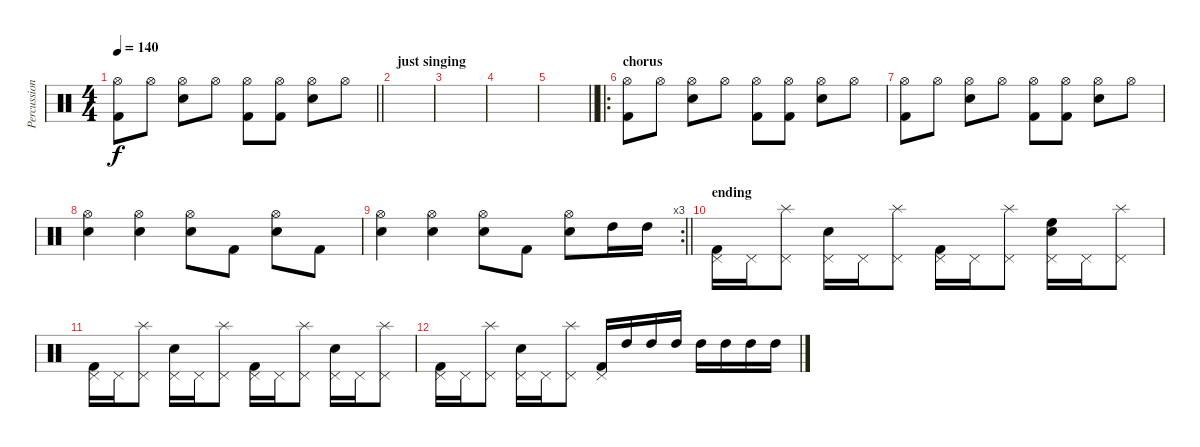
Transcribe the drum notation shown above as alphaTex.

\track ("Percussion" "Percussion") {instrument percussion}
\staff {score}
\articulation defaults
\ts (4 4)
\tempo 140
\clef neutral
\barLineRight lightlight
\ks c
("Kick (hit) 2" "Hi-Hat (open)").8{dy f} "Hi-Hat (open)".8 ("Snare (hit) 2" "Hi-Hat (open)").8 "Hi-Hat (open)".8 ("Kick (hit) 2" "Hi-Hat (open)").8 ("Kick (hit) 2" "Hi-Hat (open)").8 ("Snare (hit) 2" "Hi-Hat (open)").8 "Hi-Hat (open)".8 |
\section ("" "just singing")
|
|
|
\barLineRight lightlight
|
\ro
\section ("" "chorus")
("Kick (hit) 2" "Hi-Hat (open)").8 "Hi-Hat (open)".8 ("Snare (hit) 2" "Hi-Hat (open)").8 "Hi-Hat (open)".8 ("Kick (hit) 2" "Hi-Hat (open)").8 ("Kick (hit) 2" "Hi-Hat (open)").8 ("Snare (hit) 2" "Hi-Hat (open)").8 "Hi-Hat (open)".8 |
("Kick (hit) 2" "Hi-Hat (open)").8 "Hi-Hat (open)".8 ("Snare (hit) 2" "Hi-Hat (open)").8 "Hi-Hat (open)".8 ("Kick (hit) 2" "Hi-Hat (open)").8 ("Kick (hit) 2" "Hi-Hat (open)").8 ("Snare (hit) 2" "Hi-Hat (open)").8 "Hi-Hat (open)".8 |
("Snare (hit) 2" "Hi-Hat (open)").4 ("Snare (hit) 2" "Hi-Hat (open)").4 ("Snare (hit) 2" "Hi-Hat (open)").8 "Kick (hit) 2".8 ("Snare (hit) 2" "Hi-Hat (open)").8 "Kick (hit) 2".8 |
\rc 3
\barLineRight lightlight
("Snare (hit) 2" "Hi-Hat (open)").4 ("Snare (hit) 2" "Hi-Hat (open)").4 ("Snare (hit) 2" "Hi-Hat (open)").8 "Kick (hit) 2".8 ("Snare (hit) 2" "Hi-Hat (open)").8 "High Tom (hit)".16 "High Tom (hit)".16 |
\section ("" "ending")
("Kick (hit) 2" "Pedal Hi-Hat (hit)").16 "Pedal Hi-Hat (hit)".16 ("Pedal Hi-Hat (hit)" "Splash (hit)").8 ("Snare (hit) 2" "Pedal Hi-Hat (hit)").16 "Pedal Hi-Hat (hit)".16 ("Pedal Hi-Hat (hit)" "Splash (hit)").8 ("Kick (hit) 2" "Pedal Hi-Hat (hit)").16 "Pedal Hi-Hat (hit)".16 ("Pedal Hi-Hat (hit)" "Splash (hit)").8 ("Snare (hit) 2" "High Floor Tom (hit)" "Pedal Hi-Hat (hit)").16 "Pedal Hi-Hat (hit)".16 ("Pedal Hi-Hat (hit)" "Splash (hit)").8 |
("Kick (hit) 2" "Pedal Hi-Hat (hit)").16 "Pedal Hi-Hat (hit)".16 ("Pedal Hi-Hat (hit)" "Splash (hit)").8 ("Snare (hit) 2" "Pedal Hi-Hat (hit)").16 "Pedal Hi-Hat (hit)".16 ("Pedal Hi-Hat (hit)" "Splash (hit)").8 ("Kick (hit) 2" "Pedal Hi-Hat (hit)").16 "Pedal Hi-Hat (hit)".16 ("Pedal Hi-Hat (hit)" "Splash (hit)").8 ("Snare (hit) 2" "Pedal Hi-Hat (hit)").16 "Pedal Hi-Hat (hit)".16 ("Pedal Hi-Hat (hit)" "Splash (hit)").8 |
("Kick (hit) 2" "Pedal Hi-Hat (hit)").16 "Pedal Hi-Hat (hit)".16 ("Pedal Hi-Hat (hit)" "Splash (hit)").8 ("Snare (hit) 2" "Pedal Hi-Hat (hit)").16 "Pedal Hi-Hat (hit)".16 ("Pedal Hi-Hat (hit)" "Splash (hit)").8 ("Kick (hit) 2" "Pedal Hi-Hat (hit)").16 "High Tom (hit)".16 "High Tom (hit)".16 "High Tom (hit)".16 "High Tom (hit)".16 "High Tom (hit)".16 "High Tom (hit)".16 "High Tom (hit)".16
